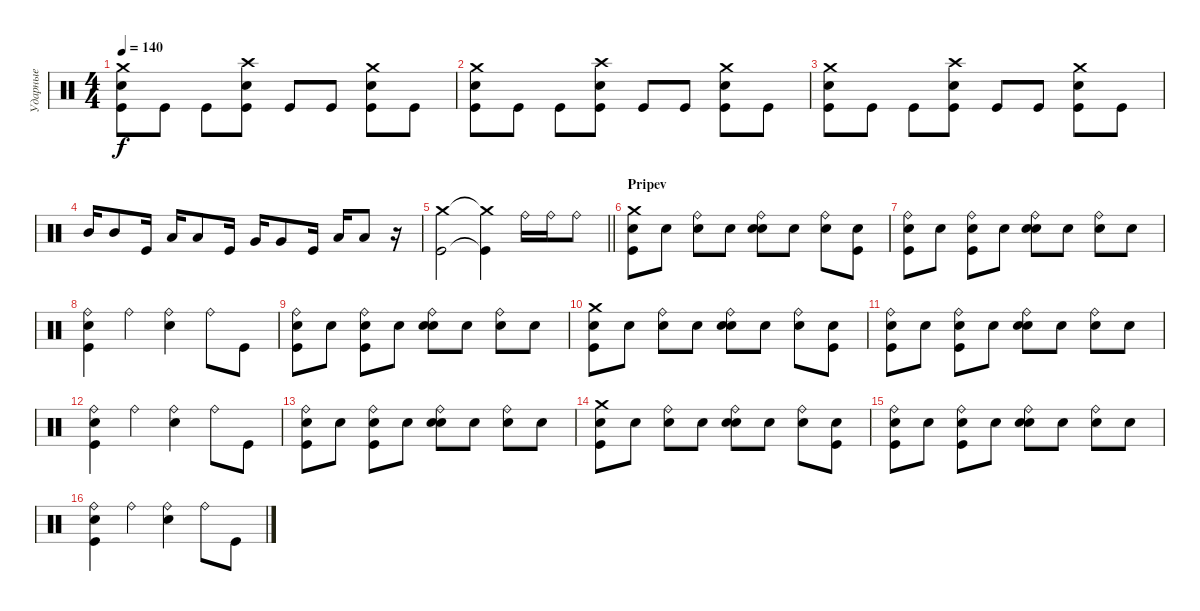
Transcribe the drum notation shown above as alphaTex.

\track ("Ударные" "Ударные") {instrument percussion}
\staff {score}
\articulation defaults
\ts (4 4)
\tempo 140
\clef neutral
\ks c
("Crash medium (hit)" "Snare (hit) 2" "Kick (hit)").8{dy f} "Kick (hit)".8 "Kick (hit)".8 ("Crash high (hit)" "Snare (hit) 2" "Kick (hit)").8 "Kick (hit)".8 "Kick (hit)".8 ("Crash medium (hit)" "Snare (hit) 2" "Kick (hit)").8 "Kick (hit)".8 |
("Crash medium (hit)" "Snare (hit) 2" "Kick (hit)").8 "Kick (hit)".8 "Kick (hit)".8 ("Crash high (hit)" "Snare (hit) 2" "Kick (hit)").8 "Kick (hit)".8 "Kick (hit)".8 ("Crash medium (hit)" "Snare (hit) 2" "Kick (hit)").8 "Kick (hit)".8 |
("Crash medium (hit)" "Snare (hit) 2" "Kick (hit)").8 "Kick (hit)".8 "Kick (hit)".8 ("Crash high (hit)" "Snare (hit) 2" "Kick (hit)").8 "Kick (hit)".8 "Kick (hit)".8 ("Crash medium (hit)" "Snare (hit) 2" "Kick (hit)").8 "Kick (hit)".8 |
"Mid Tom (hit)".16 "Mid Tom (hit)".8 "Kick (hit)".16 "Low Tom (hit)".16 "Low Tom (hit)".8 "Kick (hit)".16 "Very Low Tom (hit)".16 "Very Low Tom (hit)".8 "Kick (hit)".16 "Low Floor Tom (hit)".16 "Low Floor Tom (hit)".8 r.16 |
\barLineRight lightlight
("Crash medium (hit)" "Kick (hit)").2 ("Crash medium (hit)"{t} "Kick (hit)"{t}).4 "Ride (bell)".16 "Ride (bell)".16 "Ride (bell)".8 |
\section ("" "Pripev")
("Snare (hit)" "Crash medium (hit)" "Kick (hit)").8 "Snare (hit)".8 ("Snare (hit)" "Ride (bell)").8 "Snare (hit)".8 ("Snare (hit)" "Snare (hit) 2" "Ride (bell)").8 "Snare (hit)".8 ("Snare (hit)" "Ride (bell)").8 ("Snare (hit)" "Kick (hit)").8 |
("Snare (hit)" "Kick (hit)" "Ride (bell)").8 "Snare (hit)".8 ("Snare (hit)" "Kick (hit)" "Ride (bell)").8 "Snare (hit)".8 ("Snare (hit)" "Snare (hit) 2" "Ride (bell)").8 "Snare (hit)".8 ("Snare (hit)" "Ride (bell)").8 "Snare (hit)".8 |
("Snare (hit)" "Kick (hit)" "Ride (bell)").4 "Ride (bell)".4 ("Snare (hit) 2" "Ride (bell)").4 "Ride (bell)".8 "Kick (hit)".8 |
("Snare (hit)" "Kick (hit)" "Ride (bell)").8 "Snare (hit)".8 ("Snare (hit)" "Kick (hit)" "Ride (bell)").8 "Snare (hit)".8 ("Snare (hit)" "Snare (hit) 2" "Ride (bell)").8 "Snare (hit)".8 ("Snare (hit)" "Ride (bell)").8 "Snare (hit)".8 |
("Snare (hit)" "Crash medium (hit)" "Kick (hit)").8 "Snare (hit)".8 ("Snare (hit)" "Ride (bell)").8 "Snare (hit)".8 ("Snare (hit)" "Snare (hit) 2" "Ride (bell)").8 "Snare (hit)".8 ("Snare (hit)" "Ride (bell)").8 ("Snare (hit)" "Kick (hit)").8 |
("Snare (hit)" "Kick (hit)" "Ride (bell)").8 "Snare (hit)".8 ("Snare (hit)" "Kick (hit)" "Ride (bell)").8 "Snare (hit)".8 ("Snare (hit)" "Snare (hit) 2" "Ride (bell)").8 "Snare (hit)".8 ("Snare (hit)" "Ride (bell)").8 "Snare (hit)".8 |
("Snare (hit)" "Kick (hit)" "Ride (bell)").4 "Ride (bell)".4 ("Snare (hit) 2" "Ride (bell)").4 "Ride (bell)".8 "Kick (hit)".8 |
("Snare (hit)" "Kick (hit)" "Ride (bell)").8 "Snare (hit)".8 ("Snare (hit)" "Kick (hit)" "Ride (bell)").8 "Snare (hit)".8 ("Snare (hit)" "Snare (hit) 2" "Ride (bell)").8 "Snare (hit)".8 ("Snare (hit)" "Ride (bell)").8 "Snare (hit)".8 |
("Snare (hit)" "Crash medium (hit)" "Kick (hit)").8 "Snare (hit)".8 ("Snare (hit)" "Ride (bell)").8 "Snare (hit)".8 ("Snare (hit)" "Snare (hit) 2" "Ride (bell)").8 "Snare (hit)".8 ("Snare (hit)" "Ride (bell)").8 ("Snare (hit)" "Kick (hit)").8 |
("Snare (hit)" "Kick (hit)" "Ride (bell)").8 "Snare (hit)".8 ("Snare (hit)" "Kick (hit)" "Ride (bell)").8 "Snare (hit)".8 ("Snare (hit)" "Snare (hit) 2" "Ride (bell)").8 "Snare (hit)".8 ("Snare (hit)" "Ride (bell)").8 "Snare (hit)".8 |
("Snare (hit)" "Kick (hit)" "Ride (bell)").4 "Ride (bell)".4 ("Snare (hit) 2" "Ride (bell)").4 "Ride (bell)".8 "Kick (hit)".8
